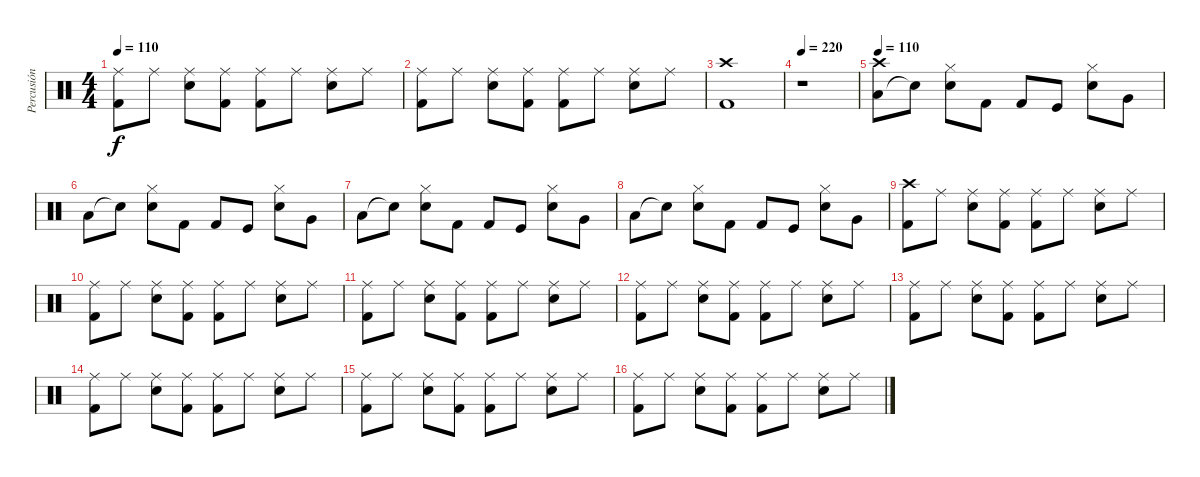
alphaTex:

\track ("Percusión" "Percusión") {instrument percussion}
\staff {score}
\articulation defaults
\ts (4 4)
\tempo 110
\clef neutral
\ks c
("Ride (middle)" "Kick (hit) 2").8{dy f} "Ride (middle)".8 ("Ride (middle)" "Snare (hit) 2").8 ("Ride (middle)" "Kick (hit) 2").8 ("Ride (middle)" "Kick (hit) 2").8 "Ride (middle)".8 ("Ride (middle)" "Snare (hit) 2").8 "Ride (middle)".8 |
("Ride (middle)" "Kick (hit) 2").8 "Ride (middle)".8 ("Ride (middle)" "Snare (hit) 2").8 ("Ride (middle)" "Kick (hit) 2").8 ("Ride (middle)" "Kick (hit) 2").8 "Ride (middle)".8 ("Ride (middle)" "Snare (hit) 2").8 "Ride (middle)".8 |
("Crash high (hit)" "Kick (hit) 2").1 |
\tempo 220
r.1 |
\tempo 110
("Low Floor Tom (hit)" "Crash high (hit)").8 "Snare (hit)"{t}.8 ("Snare (hit) 2" "Hi-Hat (closed)").8 "Kick (hit) 2".8 "Kick (hit) 2".8 "Kick (hit)".8 ("Snare (hit) 2" "Hi-Hat (closed)").8 "Very Low Tom (hit)".8 |
"Low Floor Tom (hit)".8 "Snare (hit)"{t}.8 ("Snare (hit) 2" "Hi-Hat (closed)").8 "Kick (hit) 2".8 "Kick (hit) 2".8 "Kick (hit)".8 ("Snare (hit) 2" "Hi-Hat (closed)").8 "Very Low Tom (hit)".8 |
"Low Floor Tom (hit)".8 "Snare (hit)"{t}.8 ("Snare (hit) 2" "Hi-Hat (closed)").8 "Kick (hit) 2".8 "Kick (hit) 2".8 "Kick (hit)".8 ("Snare (hit) 2" "Hi-Hat (closed)").8 "Very Low Tom (hit)".8 |
"Low Floor Tom (hit)".8 "Snare (hit)"{t}.8 ("Snare (hit) 2" "Hi-Hat (closed)").8 "Kick (hit) 2".8 "Kick (hit) 2".8 "Kick (hit)".8 ("Snare (hit) 2" "Hi-Hat (closed)").8 "Very Low Tom (hit)".8 |
("Crash high (hit)" "Kick (hit) 2").8 "Ride (middle)".8 ("Ride (middle)" "Snare (hit) 2").8 ("Ride (middle)" "Kick (hit) 2").8 ("Ride (middle)" "Kick (hit) 2").8 "Ride (middle)".8 ("Ride (middle)" "Snare (hit) 2").8 "Ride (middle)".8 |
("Ride (middle)" "Kick (hit) 2").8 "Ride (middle)".8 ("Ride (middle)" "Snare (hit) 2").8 ("Ride (middle)" "Kick (hit) 2").8 ("Ride (middle)" "Kick (hit) 2").8 "Ride (middle)".8 ("Ride (middle)" "Snare (hit) 2").8 "Ride (middle)".8 |
("Ride (middle)" "Kick (hit) 2").8 "Ride (middle)".8 ("Ride (middle)" "Snare (hit) 2").8 ("Ride (middle)" "Kick (hit) 2").8 ("Ride (middle)" "Kick (hit) 2").8 "Ride (middle)".8 ("Ride (middle)" "Snare (hit) 2").8 "Ride (middle)".8 |
("Ride (middle)" "Kick (hit) 2").8 "Ride (middle)".8 ("Ride (middle)" "Snare (hit) 2").8 ("Ride (middle)" "Kick (hit) 2").8 ("Ride (middle)" "Kick (hit) 2").8 "Ride (middle)".8 ("Ride (middle)" "Snare (hit) 2").8 "Ride (middle)".8 |
("Ride (middle)" "Kick (hit) 2").8 "Ride (middle)".8 ("Ride (middle)" "Snare (hit) 2").8 ("Ride (middle)" "Kick (hit) 2").8 ("Ride (middle)" "Kick (hit) 2").8 "Ride (middle)".8 ("Ride (middle)" "Snare (hit) 2").8 "Ride (middle)".8 |
("Ride (middle)" "Kick (hit) 2").8 "Ride (middle)".8 ("Ride (middle)" "Snare (hit) 2").8 ("Ride (middle)" "Kick (hit) 2").8 ("Ride (middle)" "Kick (hit) 2").8 "Ride (middle)".8 ("Ride (middle)" "Snare (hit) 2").8 "Ride (middle)".8 |
("Ride (middle)" "Kick (hit) 2").8 "Ride (middle)".8 ("Ride (middle)" "Snare (hit) 2").8 ("Ride (middle)" "Kick (hit) 2").8 ("Ride (middle)" "Kick (hit) 2").8 "Ride (middle)".8 ("Ride (middle)" "Snare (hit) 2").8 "Ride (middle)".8 |
("Ride (middle)" "Kick (hit) 2").8 "Ride (middle)".8 ("Ride (middle)" "Snare (hit) 2").8 ("Ride (middle)" "Kick (hit) 2").8 ("Ride (middle)" "Kick (hit) 2").8 "Ride (middle)".8 ("Ride (middle)" "Snare (hit) 2").8 "Ride (middle)".8
